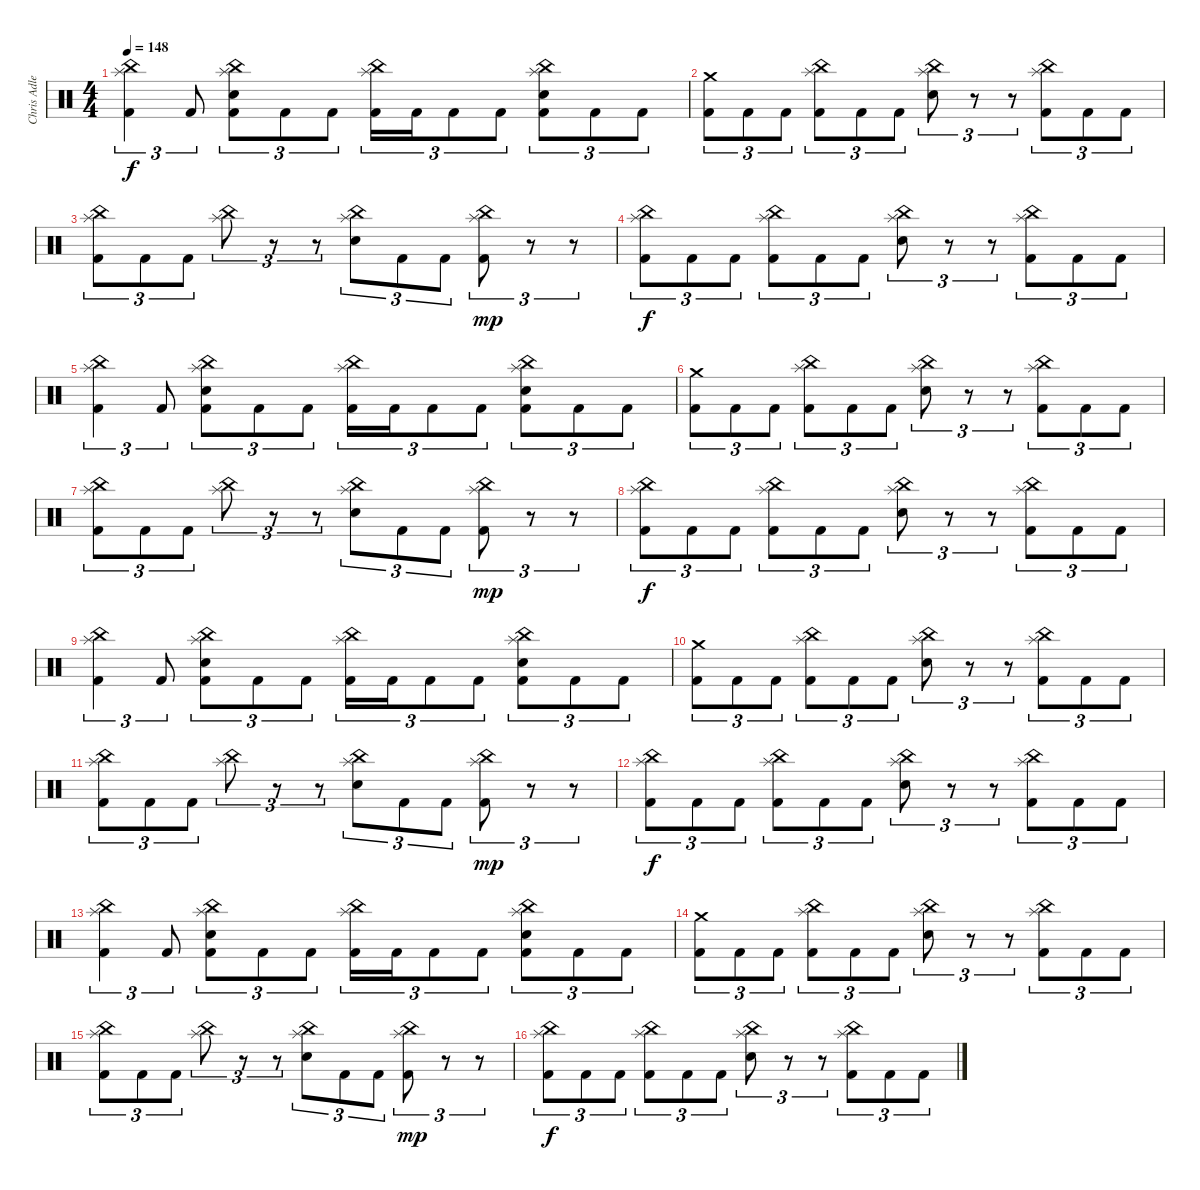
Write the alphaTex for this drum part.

\track ("Chris Adler" "Chris Adle") {instrument percussion}
\staff {score}
\articulation defaults
\ts (4 4)
\tempo 148
\clef neutral
\ks c
("China (hit)" "Splash (hit)" "Kick (hit) 2").4{tu (3 2) dy f} "Kick (hit) 2".8{tu (3 2)} ("China (hit)" "Splash (hit)" "Snare (hit) 2" "Kick (hit) 2").8{tu (3 2)} "Kick (hit) 2".8{tu (3 2)} "Kick (hit) 2".8{tu (3 2)} ("China (hit)" "Splash (hit)" "Kick (hit) 2").16{tu (3 2)} "Kick (hit) 2".16{tu (3 2)} "Kick (hit) 2".8{tu (3 2)} "Kick (hit) 2".8{tu (3 2)} ("China (hit)" "Splash (hit)" "Snare (hit) 2" "Kick (hit) 2").8{tu (3 2)} "Kick (hit) 2".8{tu (3 2)} "Kick (hit) 2".8{tu (3 2)} |
("Crash medium (hit)" "Kick (hit) 2").8{tu (3 2)} "Kick (hit) 2".8{tu (3 2)} "Kick (hit) 2".8{tu (3 2)} ("China (hit)" "Splash (hit)" "Kick (hit) 2").8{tu (3 2)} "Kick (hit) 2".8{tu (3 2)} "Kick (hit) 2".8{tu (3 2)} ("China (hit)" "Splash (hit)" "Snare (hit) 2").8{tu (3 2)} r.8{tu (3 2)} r.8{tu (3 2)} ("China (hit)" "Splash (hit)" "Kick (hit) 2").8{tu (3 2)} "Kick (hit) 2".8{tu (3 2)} "Kick (hit) 2".8{tu (3 2)} |
("China (hit)" "Splash (hit)" "Kick (hit) 2").8{tu (3 2)} "Kick (hit) 2".8{tu (3 2)} "Kick (hit) 2".8{tu (3 2)} ("China (hit)" "Splash (hit)").8{tu (3 2)} r.8{tu (3 2)} r.8{tu (3 2)} ("China (hit)" "Splash (hit)" "Snare (hit) 2").8{tu (3 2)} "Kick (hit) 2".8{tu (3 2)} "Kick (hit) 2".8{tu (3 2)} ("China (hit)" "Splash (hit)" "Kick (hit) 2").8{tu (3 2) dy mp} r.8{tu (3 2)} r.8{tu (3 2)} |
("China (hit)" "Splash (hit)" "Kick (hit) 2").8{tu (3 2) dy f} "Kick (hit) 2".8{tu (3 2)} "Kick (hit) 2".8{tu (3 2)} ("China (hit)" "Splash (hit)" "Kick (hit) 2").8{tu (3 2)} "Kick (hit) 2".8{tu (3 2)} "Kick (hit) 2".8{tu (3 2)} ("China (hit)" "Splash (hit)" "Snare (hit) 2").8{tu (3 2)} r.8{tu (3 2)} r.8{tu (3 2)} ("China (hit)" "Splash (hit)" "Kick (hit) 2").8{tu (3 2)} "Kick (hit) 2".8{tu (3 2)} "Kick (hit) 2".8{tu (3 2)} |
("China (hit)" "Splash (hit)" "Kick (hit) 2").4{tu (3 2)} "Kick (hit) 2".8{tu (3 2)} ("China (hit)" "Splash (hit)" "Snare (hit) 2" "Kick (hit) 2").8{tu (3 2)} "Kick (hit) 2".8{tu (3 2)} "Kick (hit) 2".8{tu (3 2)} ("China (hit)" "Splash (hit)" "Kick (hit) 2").16{tu (3 2)} "Kick (hit) 2".16{tu (3 2)} "Kick (hit) 2".8{tu (3 2)} "Kick (hit) 2".8{tu (3 2)} ("China (hit)" "Splash (hit)" "Snare (hit) 2" "Kick (hit) 2").8{tu (3 2)} "Kick (hit) 2".8{tu (3 2)} "Kick (hit) 2".8{tu (3 2)} |
("Crash medium (hit)" "Kick (hit) 2").8{tu (3 2)} "Kick (hit) 2".8{tu (3 2)} "Kick (hit) 2".8{tu (3 2)} ("China (hit)" "Splash (hit)" "Kick (hit) 2").8{tu (3 2)} "Kick (hit) 2".8{tu (3 2)} "Kick (hit) 2".8{tu (3 2)} ("China (hit)" "Splash (hit)" "Snare (hit) 2").8{tu (3 2)} r.8{tu (3 2)} r.8{tu (3 2)} ("China (hit)" "Splash (hit)" "Kick (hit) 2").8{tu (3 2)} "Kick (hit) 2".8{tu (3 2)} "Kick (hit) 2".8{tu (3 2)} |
("China (hit)" "Splash (hit)" "Kick (hit) 2").8{tu (3 2)} "Kick (hit) 2".8{tu (3 2)} "Kick (hit) 2".8{tu (3 2)} ("China (hit)" "Splash (hit)").8{tu (3 2)} r.8{tu (3 2)} r.8{tu (3 2)} ("China (hit)" "Splash (hit)" "Snare (hit) 2").8{tu (3 2)} "Kick (hit) 2".8{tu (3 2)} "Kick (hit) 2".8{tu (3 2)} ("China (hit)" "Splash (hit)" "Kick (hit) 2").8{tu (3 2) dy mp} r.8{tu (3 2)} r.8{tu (3 2)} |
("China (hit)" "Splash (hit)" "Kick (hit) 2").8{tu (3 2) dy f} "Kick (hit) 2".8{tu (3 2)} "Kick (hit) 2".8{tu (3 2)} ("China (hit)" "Splash (hit)" "Kick (hit) 2").8{tu (3 2)} "Kick (hit) 2".8{tu (3 2)} "Kick (hit) 2".8{tu (3 2)} ("China (hit)" "Splash (hit)" "Snare (hit) 2").8{tu (3 2)} r.8{tu (3 2)} r.8{tu (3 2)} ("China (hit)" "Splash (hit)" "Kick (hit) 2").8{tu (3 2)} "Kick (hit) 2".8{tu (3 2)} "Kick (hit) 2".8{tu (3 2)} |
("China (hit)" "Splash (hit)" "Kick (hit) 2").4{tu (3 2)} "Kick (hit) 2".8{tu (3 2)} ("China (hit)" "Splash (hit)" "Snare (hit) 2" "Kick (hit) 2").8{tu (3 2)} "Kick (hit) 2".8{tu (3 2)} "Kick (hit) 2".8{tu (3 2)} ("China (hit)" "Splash (hit)" "Kick (hit) 2").16{tu (3 2)} "Kick (hit) 2".16{tu (3 2)} "Kick (hit) 2".8{tu (3 2)} "Kick (hit) 2".8{tu (3 2)} ("China (hit)" "Splash (hit)" "Snare (hit) 2" "Kick (hit) 2").8{tu (3 2)} "Kick (hit) 2".8{tu (3 2)} "Kick (hit) 2".8{tu (3 2)} |
("Crash medium (hit)" "Kick (hit) 2").8{tu (3 2)} "Kick (hit) 2".8{tu (3 2)} "Kick (hit) 2".8{tu (3 2)} ("China (hit)" "Splash (hit)" "Kick (hit) 2").8{tu (3 2)} "Kick (hit) 2".8{tu (3 2)} "Kick (hit) 2".8{tu (3 2)} ("China (hit)" "Splash (hit)" "Snare (hit) 2").8{tu (3 2)} r.8{tu (3 2)} r.8{tu (3 2)} ("China (hit)" "Splash (hit)" "Kick (hit) 2").8{tu (3 2)} "Kick (hit) 2".8{tu (3 2)} "Kick (hit) 2".8{tu (3 2)} |
("China (hit)" "Splash (hit)" "Kick (hit) 2").8{tu (3 2)} "Kick (hit) 2".8{tu (3 2)} "Kick (hit) 2".8{tu (3 2)} ("China (hit)" "Splash (hit)").8{tu (3 2)} r.8{tu (3 2)} r.8{tu (3 2)} ("China (hit)" "Splash (hit)" "Snare (hit) 2").8{tu (3 2)} "Kick (hit) 2".8{tu (3 2)} "Kick (hit) 2".8{tu (3 2)} ("China (hit)" "Splash (hit)" "Kick (hit) 2").8{tu (3 2) dy mp} r.8{tu (3 2)} r.8{tu (3 2)} |
("China (hit)" "Splash (hit)" "Kick (hit) 2").8{tu (3 2) dy f} "Kick (hit) 2".8{tu (3 2)} "Kick (hit) 2".8{tu (3 2)} ("China (hit)" "Splash (hit)" "Kick (hit) 2").8{tu (3 2)} "Kick (hit) 2".8{tu (3 2)} "Kick (hit) 2".8{tu (3 2)} ("China (hit)" "Splash (hit)" "Snare (hit) 2").8{tu (3 2)} r.8{tu (3 2)} r.8{tu (3 2)} ("China (hit)" "Splash (hit)" "Kick (hit) 2").8{tu (3 2)} "Kick (hit) 2".8{tu (3 2)} "Kick (hit) 2".8{tu (3 2)} |
("China (hit)" "Splash (hit)" "Kick (hit) 2").4{tu (3 2)} "Kick (hit) 2".8{tu (3 2)} ("China (hit)" "Splash (hit)" "Snare (hit) 2" "Kick (hit) 2").8{tu (3 2)} "Kick (hit) 2".8{tu (3 2)} "Kick (hit) 2".8{tu (3 2)} ("China (hit)" "Splash (hit)" "Kick (hit) 2").16{tu (3 2)} "Kick (hit) 2".16{tu (3 2)} "Kick (hit) 2".8{tu (3 2)} "Kick (hit) 2".8{tu (3 2)} ("China (hit)" "Splash (hit)" "Snare (hit) 2" "Kick (hit) 2").8{tu (3 2)} "Kick (hit) 2".8{tu (3 2)} "Kick (hit) 2".8{tu (3 2)} |
("Crash medium (hit)" "Kick (hit) 2").8{tu (3 2)} "Kick (hit) 2".8{tu (3 2)} "Kick (hit) 2".8{tu (3 2)} ("China (hit)" "Splash (hit)" "Kick (hit) 2").8{tu (3 2)} "Kick (hit) 2".8{tu (3 2)} "Kick (hit) 2".8{tu (3 2)} ("China (hit)" "Splash (hit)" "Snare (hit) 2").8{tu (3 2)} r.8{tu (3 2)} r.8{tu (3 2)} ("China (hit)" "Splash (hit)" "Kick (hit) 2").8{tu (3 2)} "Kick (hit) 2".8{tu (3 2)} "Kick (hit) 2".8{tu (3 2)} |
("China (hit)" "Splash (hit)" "Kick (hit) 2").8{tu (3 2)} "Kick (hit) 2".8{tu (3 2)} "Kick (hit) 2".8{tu (3 2)} ("China (hit)" "Splash (hit)").8{tu (3 2)} r.8{tu (3 2)} r.8{tu (3 2)} ("China (hit)" "Splash (hit)" "Snare (hit) 2").8{tu (3 2)} "Kick (hit) 2".8{tu (3 2)} "Kick (hit) 2".8{tu (3 2)} ("China (hit)" "Splash (hit)" "Kick (hit) 2").8{tu (3 2) dy mp} r.8{tu (3 2)} r.8{tu (3 2)} |
("China (hit)" "Splash (hit)" "Kick (hit) 2").8{tu (3 2) dy f} "Kick (hit) 2".8{tu (3 2)} "Kick (hit) 2".8{tu (3 2)} ("China (hit)" "Splash (hit)" "Kick (hit) 2").8{tu (3 2)} "Kick (hit) 2".8{tu (3 2)} "Kick (hit) 2".8{tu (3 2)} ("China (hit)" "Splash (hit)" "Snare (hit) 2").8{tu (3 2)} r.8{tu (3 2)} r.8{tu (3 2)} ("China (hit)" "Splash (hit)" "Kick (hit) 2").8{tu (3 2)} "Kick (hit) 2".8{tu (3 2)} "Kick (hit) 2".8{tu (3 2)}
